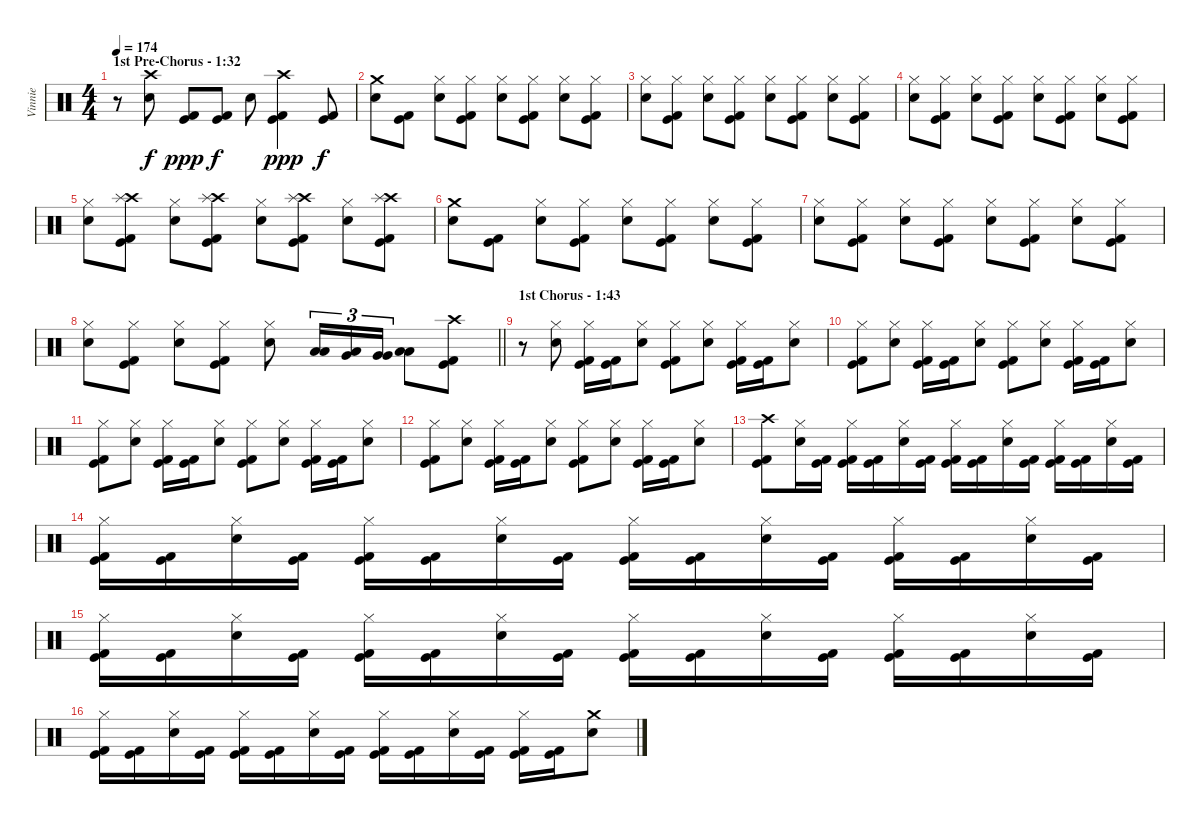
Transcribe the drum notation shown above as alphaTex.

\track ("Vinnie" "Vinnie") {instrument percussion}
\staff {score}
\articulation defaults
\ts (4 4)
\section ("" "1st Pre-Chorus - 1:32")
\tempo 174
\clef neutral
\ks c
r.8{dy ppp} ("Crash high (hit)" "Electric Snare (hit)").8{dy f} ("Kick (hit)" "Kick (hit) 2").8{dy ppp} ("Kick (hit)" "Kick (hit) 2").8{dy f} "Electric Snare (hit)".8 ("Crash high (hit)" "Kick (hit)" "Kick (hit) 2").4{dy ppp} ("Kick (hit)" "Kick (hit) 2").8{dy f} |
("Crash medium (hit)" "Electric Snare (hit)").8 ("Kick (hit)" "Kick (hit) 2").8 ("Hi-Hat (closed)" "Electric Snare (hit)").8 ("Hi-Hat (closed)" "Kick (hit)" "Kick (hit) 2").8 ("Hi-Hat (closed)" "Electric Snare (hit)").8 ("Hi-Hat (closed)" "Kick (hit)" "Kick (hit) 2").8 ("Hi-Hat (closed)" "Electric Snare (hit)").8 ("Hi-Hat (closed)" "Kick (hit)" "Kick (hit) 2").8 |
("Hi-Hat (closed)" "Electric Snare (hit)").8 ("Hi-Hat (closed)" "Kick (hit)" "Kick (hit) 2").8 ("Hi-Hat (closed)" "Electric Snare (hit)").8 ("Hi-Hat (closed)" "Kick (hit)" "Kick (hit) 2").8 ("Hi-Hat (closed)" "Electric Snare (hit)").8 ("Hi-Hat (closed)" "Kick (hit)" "Kick (hit) 2").8 ("Hi-Hat (closed)" "Electric Snare (hit)").8 ("Hi-Hat (closed)" "Kick (hit)" "Kick (hit) 2").8 |
("Hi-Hat (closed)" "Electric Snare (hit)").8 ("Hi-Hat (closed)" "Kick (hit)" "Kick (hit) 2").8 ("Hi-Hat (closed)" "Electric Snare (hit)").8 ("Hi-Hat (closed)" "Kick (hit)" "Kick (hit) 2").8 ("Hi-Hat (closed)" "Electric Snare (hit)").8 ("Hi-Hat (closed)" "Kick (hit)" "Kick (hit) 2").8 ("Hi-Hat (closed)" "Electric Snare (hit)").8 ("Hi-Hat (closed)" "Kick (hit)" "Kick (hit) 2").8 |
("Hi-Hat (closed)" "Electric Snare (hit)").8 ("Crash high (hit)" "Splash (hit)" "Kick (hit)" "Kick (hit) 2").8 ("Hi-Hat (closed)" "Electric Snare (hit)").8 ("Crash high (hit)" "Splash (hit)" "Kick (hit)" "Kick (hit) 2").8 ("Hi-Hat (closed)" "Electric Snare (hit)").8 ("Crash high (hit)" "Splash (hit)" "Kick (hit)" "Kick (hit) 2").8 ("Hi-Hat (closed)" "Electric Snare (hit)").8 ("Crash high (hit)" "Splash (hit)" "Kick (hit)" "Kick (hit) 2").8 |
("Crash medium (hit)" "Electric Snare (hit)").8 ("Kick (hit)" "Kick (hit) 2").8 ("Hi-Hat (closed)" "Electric Snare (hit)").8 ("Hi-Hat (closed)" "Kick (hit)" "Kick (hit) 2").8 ("Hi-Hat (closed)" "Electric Snare (hit)").8 ("Hi-Hat (closed)" "Kick (hit)" "Kick (hit) 2").8 ("Hi-Hat (closed)" "Electric Snare (hit)").8 ("Hi-Hat (closed)" "Kick (hit)" "Kick (hit) 2").8 |
("Hi-Hat (closed)" "Electric Snare (hit)").8 ("Hi-Hat (closed)" "Kick (hit)" "Kick (hit) 2").8 ("Hi-Hat (closed)" "Electric Snare (hit)").8 ("Hi-Hat (closed)" "Kick (hit)" "Kick (hit) 2").8 ("Hi-Hat (closed)" "Electric Snare (hit)").8 ("Hi-Hat (closed)" "Kick (hit)" "Kick (hit) 2").8 ("Hi-Hat (closed)" "Electric Snare (hit)").8 ("Hi-Hat (closed)" "Kick (hit)" "Kick (hit) 2").8 |
\barLineRight lightlight
("Hi-Hat (closed)" "Electric Snare (hit)").8 ("Hi-Hat (closed)" "Kick (hit)" "Kick (hit) 2").8 ("Hi-Hat (closed)" "Electric Snare (hit)").8 ("Hi-Hat (closed)" "Kick (hit)" "Kick (hit) 2").8 ("Hi-Hat (closed)" "Electric Snare (hit)").8 ("Low Tom (hit)" "Low Tom (hit)").16{tu (3 2)} ("Low Tom (hit)" "Very Low Tom (hit)").16{tu (3 2)} ("Very Low Tom (hit)" "Very Low Tom (hit)").16{tu (3 2)} ("Low Floor Tom (hit)" "Low Floor Tom (hit)").8 ("Crash high (hit)" "Kick (hit)" "Kick (hit) 2").8 |
\section ("" "1st Chorus - 1:43")
r.8 ("Hi-Hat (closed)" "Electric Snare (hit)").8 ("Hi-Hat (closed)" "Kick (hit)" "Kick (hit) 2").16 ("Kick (hit)" "Kick (hit) 2").16 ("Hi-Hat (closed)" "Electric Snare (hit)").8 ("Hi-Hat (closed)" "Kick (hit)" "Kick (hit) 2").8 ("Hi-Hat (closed)" "Electric Snare (hit)").8 ("Hi-Hat (closed)" "Kick (hit)" "Kick (hit) 2").16 ("Kick (hit)" "Kick (hit) 2").16 ("Hi-Hat (closed)" "Electric Snare (hit)").8 |
("Hi-Hat (closed)" "Kick (hit)" "Kick (hit) 2").8 ("Hi-Hat (closed)" "Electric Snare (hit)").8 ("Hi-Hat (closed)" "Kick (hit)" "Kick (hit) 2").16 ("Kick (hit)" "Kick (hit) 2").16 ("Hi-Hat (closed)" "Electric Snare (hit)").8 ("Hi-Hat (closed)" "Kick (hit)" "Kick (hit) 2").8 ("Hi-Hat (closed)" "Electric Snare (hit)").8 ("Hi-Hat (closed)" "Kick (hit)" "Kick (hit) 2").16 ("Kick (hit)" "Kick (hit) 2").16 ("Hi-Hat (closed)" "Electric Snare (hit)").8 |
("Hi-Hat (closed)" "Kick (hit)" "Kick (hit) 2").8 ("Hi-Hat (closed)" "Electric Snare (hit)").8 ("Hi-Hat (closed)" "Kick (hit)" "Kick (hit) 2").16 ("Kick (hit)" "Kick (hit) 2").16 ("Hi-Hat (closed)" "Electric Snare (hit)").8 ("Hi-Hat (closed)" "Kick (hit)" "Kick (hit) 2").8 ("Hi-Hat (closed)" "Electric Snare (hit)").8 ("Hi-Hat (closed)" "Kick (hit)" "Kick (hit) 2").16 ("Kick (hit)" "Kick (hit) 2").16 ("Hi-Hat (closed)" "Electric Snare (hit)").8 |
("Hi-Hat (closed)" "Kick (hit)" "Kick (hit) 2").8 ("Hi-Hat (closed)" "Electric Snare (hit)").8 ("Hi-Hat (closed)" "Kick (hit)" "Kick (hit) 2").16 ("Kick (hit)" "Kick (hit) 2").16 ("Hi-Hat (closed)" "Electric Snare (hit)").8 ("Hi-Hat (closed)" "Kick (hit)" "Kick (hit) 2").8 ("Hi-Hat (closed)" "Electric Snare (hit)").8 ("Hi-Hat (closed)" "Kick (hit)" "Kick (hit) 2").16 ("Kick (hit)" "Kick (hit) 2").16 ("Hi-Hat (closed)" "Electric Snare (hit)").8 |
("Crash high (hit)" "Kick (hit)" "Kick (hit) 2").8 ("Hi-Hat (closed)" "Electric Snare (hit)").16 ("Kick (hit)" "Kick (hit) 2").16 ("Hi-Hat (closed)" "Kick (hit)" "Kick (hit) 2").16 ("Kick (hit)" "Kick (hit) 2").16 ("Hi-Hat (closed)" "Electric Snare (hit)").16 ("Kick (hit)" "Kick (hit) 2").16 ("Hi-Hat (closed)" "Kick (hit)" "Kick (hit) 2").16 ("Kick (hit)" "Kick (hit) 2").16 ("Hi-Hat (closed)" "Electric Snare (hit)").16 ("Kick (hit)" "Kick (hit) 2").16 ("Hi-Hat (closed)" "Kick (hit)" "Kick (hit) 2").16 ("Kick (hit)" "Kick (hit) 2").16 ("Hi-Hat (closed)" "Electric Snare (hit)").16 ("Kick (hit)" "Kick (hit) 2").16 |
("Hi-Hat (closed)" "Kick (hit)" "Kick (hit) 2").16 ("Kick (hit)" "Kick (hit) 2").16 ("Hi-Hat (closed)" "Electric Snare (hit)").16 ("Kick (hit)" "Kick (hit) 2").16 ("Hi-Hat (closed)" "Kick (hit)" "Kick (hit) 2").16 ("Kick (hit)" "Kick (hit) 2").16 ("Hi-Hat (closed)" "Electric Snare (hit)").16 ("Kick (hit)" "Kick (hit) 2").16 ("Hi-Hat (closed)" "Kick (hit)" "Kick (hit) 2").16 ("Kick (hit)" "Kick (hit) 2").16 ("Hi-Hat (closed)" "Electric Snare (hit)").16 ("Kick (hit)" "Kick (hit) 2").16 ("Hi-Hat (closed)" "Kick (hit)" "Kick (hit) 2").16 ("Kick (hit)" "Kick (hit) 2").16 ("Hi-Hat (closed)" "Electric Snare (hit)").16 ("Kick (hit)" "Kick (hit) 2").16 |
("Hi-Hat (closed)" "Kick (hit)" "Kick (hit) 2").16 ("Kick (hit)" "Kick (hit) 2").16 ("Hi-Hat (closed)" "Electric Snare (hit)").16 ("Kick (hit)" "Kick (hit) 2").16 ("Hi-Hat (closed)" "Kick (hit)" "Kick (hit) 2").16 ("Kick (hit)" "Kick (hit) 2").16 ("Hi-Hat (closed)" "Electric Snare (hit)").16 ("Kick (hit)" "Kick (hit) 2").16 ("Hi-Hat (closed)" "Kick (hit)" "Kick (hit) 2").16 ("Kick (hit)" "Kick (hit) 2").16 ("Hi-Hat (closed)" "Electric Snare (hit)").16 ("Kick (hit)" "Kick (hit) 2").16 ("Hi-Hat (closed)" "Kick (hit)" "Kick (hit) 2").16 ("Kick (hit)" "Kick (hit) 2").16 ("Hi-Hat (closed)" "Electric Snare (hit)").16 ("Kick (hit)" "Kick (hit) 2").16 |
("Hi-Hat (closed)" "Kick (hit)" "Kick (hit) 2").16 ("Kick (hit)" "Kick (hit) 2").16 ("Hi-Hat (closed)" "Electric Snare (hit)").16 ("Kick (hit)" "Kick (hit) 2").16 ("Hi-Hat (closed)" "Kick (hit)" "Kick (hit) 2").16 ("Kick (hit)" "Kick (hit) 2").16 ("Hi-Hat (closed)" "Electric Snare (hit)").16 ("Kick (hit)" "Kick (hit) 2").16 ("Hi-Hat (closed)" "Kick (hit)" "Kick (hit) 2").16 ("Kick (hit)" "Kick (hit) 2").16 ("Hi-Hat (closed)" "Electric Snare (hit)").16 ("Kick (hit)" "Kick (hit) 2").16 ("Hi-Hat (closed)" "Kick (hit)" "Kick (hit) 2").16 ("Kick (hit)" "Kick (hit) 2").16 ("Crash medium (hit)" "Electric Snare (hit)").8
